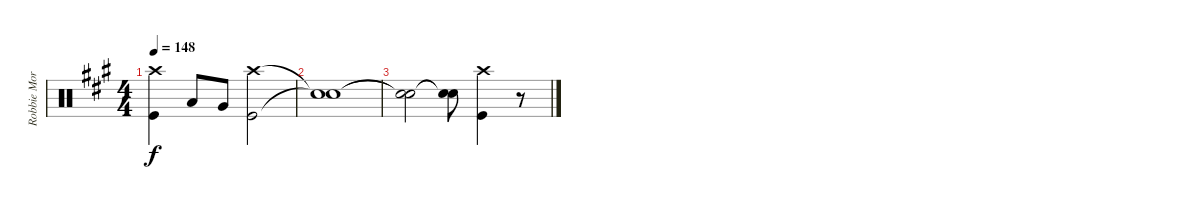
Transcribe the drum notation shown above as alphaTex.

\track ("Robbie Morris Drums" "Robbie Mor") {instrument percussion}
\staff {score}
\articulation defaults
\ts (4 4)
\tempo 148
\clef neutral
\ks a
("Crash high (hit)" "Kick (hit)").4{dy f} "Low Tom (hit)".8 "Very Low Tom (hit)".8 ("Crash high (hit)" "Kick (hit)").2 |
("Snare (hit)"{t} "Snare (hit)"{t}).1 |
("Snare (hit)"{t} "Snare (hit)"{t}).2 ("Snare (hit)"{t} "Snare (hit)"{t}).8 ("Crash high (hit)" "Kick (hit)").4 r.8
